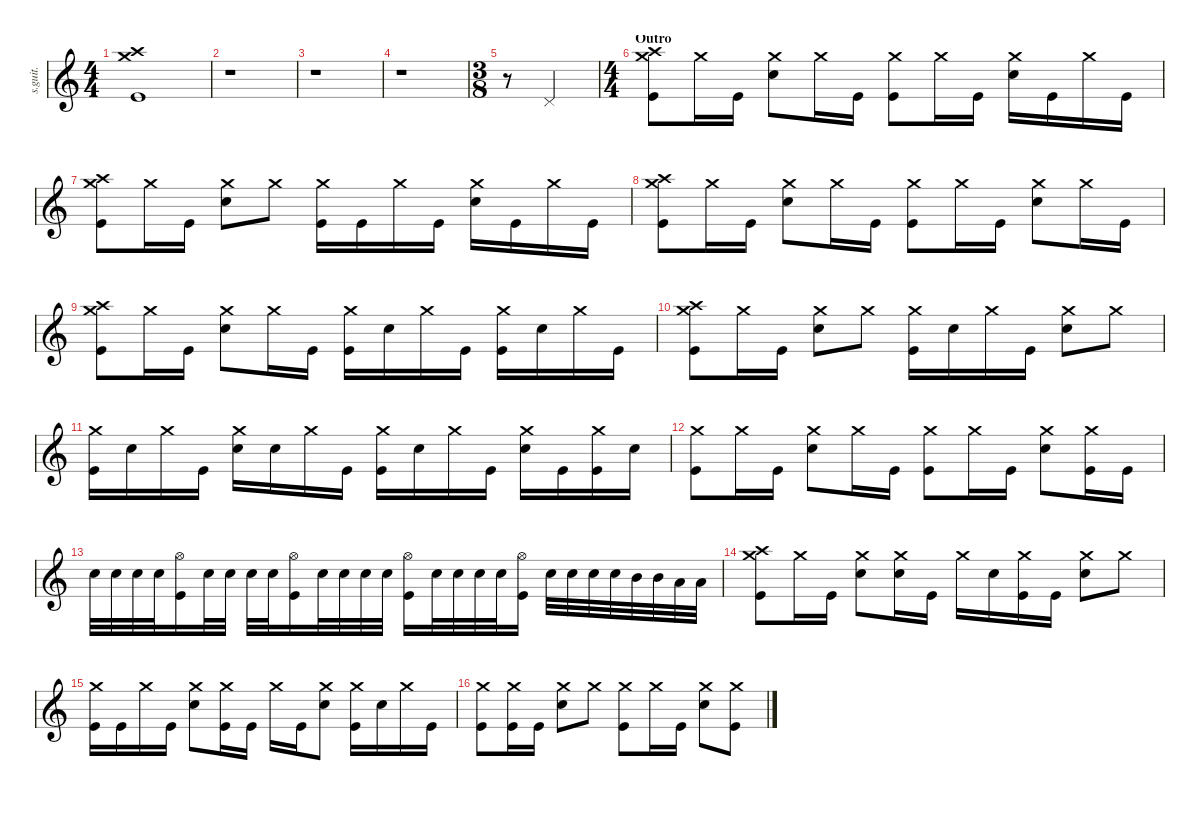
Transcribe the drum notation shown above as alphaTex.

\defaultSystemsLayout 4
\hideDynamics
\bracketExtendMode nobrackets
\track ("Abe Cunningham" "s.guit.") {instrument percussion}
\staff {score}
\articulation defaults
\ts (4 4)
\tempo (93 hide)
\clef g2
\ks c
("Kick (hit)" "Crash medium (hit)" "Crash high (hit)").1{lyrics (0 "") lyrics (1 "") lyrics (2 "") lyrics (3 "") lyrics (4 "") dy fff} |
r.1 |
r.1 |
r.1 |
\ts (3 8)
\beaming (8 2 2 2 2)
r.8 "Pedal Hi-Hat (hit)".4{lyrics (0 "") lyrics (1 "") lyrics (2 "") lyrics (3 "") lyrics (4 "")} |
\ts (4 4)
\beaming (8 2 2 2 2)
\section ("" "Outro")
("Kick (hit)" "Crash high (hit)" "Crash medium (hit)").8{lyrics (0 "") lyrics (1 "") lyrics (2 "") lyrics (3 "") lyrics (4 "")} "Crash medium (hit)".16{lyrics (0 "") lyrics (1 "") lyrics (2 "") lyrics (3 "") lyrics (4 "")} "Kick (hit)".16{lyrics (0 "") lyrics (1 "") lyrics (2 "") lyrics (3 "") lyrics (4 "")} ("Snare (hit) 2" "Crash medium (hit)").8{lyrics (0 "") lyrics (1 "") lyrics (2 "") lyrics (3 "") lyrics (4 "")} "Crash medium (hit)".16{lyrics (0 "") lyrics (1 "") lyrics (2 "") lyrics (3 "") lyrics (4 "")} "Kick (hit)".16{lyrics (0 "") lyrics (1 "") lyrics (2 "") lyrics (3 "") lyrics (4 "")} ("Kick (hit)" "Crash medium (hit)").8{lyrics (0 "") lyrics (1 "") lyrics (2 "") lyrics (3 "") lyrics (4 "")} "Crash medium (hit)".16{lyrics (0 "") lyrics (1 "") lyrics (2 "") lyrics (3 "") lyrics (4 "")} "Kick (hit)".16{lyrics (0 "") lyrics (1 "") lyrics (2 "") lyrics (3 "") lyrics (4 "")} ("Snare (hit) 2" "Crash medium (hit)").16{lyrics (0 "") lyrics (1 "") lyrics (2 "") lyrics (3 "") lyrics (4 "")} "Kick (hit)".16{lyrics (0 "") lyrics (1 "") lyrics (2 "") lyrics (3 "") lyrics (4 "")} "Crash medium (hit)".16{lyrics (0 "") lyrics (1 "") lyrics (2 "") lyrics (3 "") lyrics (4 "")} "Kick (hit)".16{lyrics (0 "") lyrics (1 "") lyrics (2 "") lyrics (3 "") lyrics (4 "")} |
("Kick (hit)" "Crash medium (hit)" "Crash high (hit)").8{lyrics (0 "") lyrics (1 "") lyrics (2 "") lyrics (3 "") lyrics (4 "")} "Crash medium (hit)".16{lyrics (0 "") lyrics (1 "") lyrics (2 "") lyrics (3 "") lyrics (4 "")} "Kick (hit)".16{lyrics (0 "") lyrics (1 "") lyrics (2 "") lyrics (3 "") lyrics (4 "")} ("Snare (hit) 2" "Crash medium (hit)").8{lyrics (0 "") lyrics (1 "") lyrics (2 "") lyrics (3 "") lyrics (4 "")} "Crash medium (hit)".8{lyrics (0 "") lyrics (1 "") lyrics (2 "") lyrics (3 "") lyrics (4 "")} ("Crash medium (hit)" "Kick (hit)").16{lyrics (0 "") lyrics (1 "") lyrics (2 "") lyrics (3 "") lyrics (4 "")} "Kick (hit)".16{lyrics (0 "") lyrics (1 "") lyrics (2 "") lyrics (3 "") lyrics (4 "")} "Crash medium (hit)".16{lyrics (0 "") lyrics (1 "") lyrics (2 "") lyrics (3 "") lyrics (4 "")} "Kick (hit)".16{lyrics (0 "") lyrics (1 "") lyrics (2 "") lyrics (3 "") lyrics (4 "")} ("Snare (hit) 2" "Crash medium (hit)").16{lyrics (0 "") lyrics (1 "") lyrics (2 "") lyrics (3 "") lyrics (4 "")} "Kick (hit)".16{lyrics (0 "") lyrics (1 "") lyrics (2 "") lyrics (3 "") lyrics (4 "")} "Crash medium (hit)".16{lyrics (0 "") lyrics (1 "") lyrics (2 "") lyrics (3 "") lyrics (4 "")} "Kick (hit)".16{lyrics (0 "") lyrics (1 "") lyrics (2 "") lyrics (3 "") lyrics (4 "")} |
("Kick (hit)" "Crash high (hit)" "Crash medium (hit)").8{lyrics (0 "") lyrics (1 "") lyrics (2 "") lyrics (3 "") lyrics (4 "")} "Crash medium (hit)".16{lyrics (0 "") lyrics (1 "") lyrics (2 "") lyrics (3 "") lyrics (4 "")} "Kick (hit)".16{lyrics (0 "") lyrics (1 "") lyrics (2 "") lyrics (3 "") lyrics (4 "")} ("Snare (hit) 2" "Crash medium (hit)").8{lyrics (0 "") lyrics (1 "") lyrics (2 "") lyrics (3 "") lyrics (4 "")} "Crash medium (hit)".16{lyrics (0 "") lyrics (1 "") lyrics (2 "") lyrics (3 "") lyrics (4 "")} "Kick (hit)".16{lyrics (0 "") lyrics (1 "") lyrics (2 "") lyrics (3 "") lyrics (4 "")} ("Kick (hit)" "Crash medium (hit)").8{lyrics (0 "") lyrics (1 "") lyrics (2 "") lyrics (3 "") lyrics (4 "")} "Crash medium (hit)".16{lyrics (0 "") lyrics (1 "") lyrics (2 "") lyrics (3 "") lyrics (4 "")} "Kick (hit)".16{lyrics (0 "") lyrics (1 "") lyrics (2 "") lyrics (3 "") lyrics (4 "")} ("Snare (hit) 2" "Crash medium (hit)").8{lyrics (0 "") lyrics (1 "") lyrics (2 "") lyrics (3 "") lyrics (4 "")} "Crash medium (hit)".16{lyrics (0 "") lyrics (1 "") lyrics (2 "") lyrics (3 "") lyrics (4 "")} "Kick (hit)".16{lyrics (0 "") lyrics (1 "") lyrics (2 "") lyrics (3 "") lyrics (4 "")} |
("Kick (hit)" "Crash medium (hit)" "Crash high (hit)").8{lyrics (0 "") lyrics (1 "") lyrics (2 "") lyrics (3 "") lyrics (4 "")} "Crash medium (hit)".16{lyrics (0 "") lyrics (1 "") lyrics (2 "") lyrics (3 "") lyrics (4 "")} "Kick (hit)".16{lyrics (0 "") lyrics (1 "") lyrics (2 "") lyrics (3 "") lyrics (4 "")} ("Snare (hit) 2" "Crash medium (hit)").8{lyrics (0 "") lyrics (1 "") lyrics (2 "") lyrics (3 "") lyrics (4 "")} "Crash medium (hit)".16{lyrics (0 "") lyrics (1 "") lyrics (2 "") lyrics (3 "") lyrics (4 "")} "Kick (hit)".16{lyrics (0 "") lyrics (1 "") lyrics (2 "") lyrics (3 "") lyrics (4 "")} ("Crash medium (hit)" "Kick (hit)").16{lyrics (0 "") lyrics (1 "") lyrics (2 "") lyrics (3 "") lyrics (4 "")} "Snare (hit) 2".16{lyrics (0 "") lyrics (1 "") lyrics (2 "") lyrics (3 "") lyrics (4 "")} "Crash medium (hit)".16{lyrics (0 "") lyrics (1 "") lyrics (2 "") lyrics (3 "") lyrics (4 "")} "Kick (hit)".16{lyrics (0 "") lyrics (1 "") lyrics (2 "") lyrics (3 "") lyrics (4 "")} ("Crash medium (hit)" "Kick (hit)").16{lyrics (0 "") lyrics (1 "") lyrics (2 "") lyrics (3 "") lyrics (4 "")} "Snare (hit) 2".16{lyrics (0 "") lyrics (1 "") lyrics (2 "") lyrics (3 "") lyrics (4 "")} "Crash medium (hit)".16{lyrics (0 "") lyrics (1 "") lyrics (2 "") lyrics (3 "") lyrics (4 "")} "Kick (hit)".16{lyrics (0 "") lyrics (1 "") lyrics (2 "") lyrics (3 "") lyrics (4 "")} |
("Kick (hit)" "Crash high (hit)" "Crash medium (hit)").8{lyrics (0 "") lyrics (1 "") lyrics (2 "") lyrics (3 "") lyrics (4 "")} "Crash medium (hit)".16{lyrics (0 "") lyrics (1 "") lyrics (2 "") lyrics (3 "") lyrics (4 "")} "Kick (hit)".16{lyrics (0 "") lyrics (1 "") lyrics (2 "") lyrics (3 "") lyrics (4 "")} ("Snare (hit) 2" "Crash medium (hit)").8{lyrics (0 "") lyrics (1 "") lyrics (2 "") lyrics (3 "") lyrics (4 "")} "Crash medium (hit)".8{lyrics (0 "") lyrics (1 "") lyrics (2 "") lyrics (3 "") lyrics (4 "")} ("Crash medium (hit)" "Kick (hit)").16{lyrics (0 "") lyrics (1 "") lyrics (2 "") lyrics (3 "") lyrics (4 "")} "Snare (hit) 2".16{lyrics (0 "") lyrics (1 "") lyrics (2 "") lyrics (3 "") lyrics (4 "")} "Crash medium (hit)".16{lyrics (0 "") lyrics (1 "") lyrics (2 "") lyrics (3 "") lyrics (4 "")} "Kick (hit)".16{lyrics (0 "") lyrics (1 "") lyrics (2 "") lyrics (3 "") lyrics (4 "")} ("Crash medium (hit)" "Snare (hit) 2").8{lyrics (0 "") lyrics (1 "") lyrics (2 "") lyrics (3 "") lyrics (4 "")} "Crash medium (hit)".8{lyrics (0 "") lyrics (1 "") lyrics (2 "") lyrics (3 "") lyrics (4 "")} |
("Kick (hit)" "Crash medium (hit)").16{lyrics (0 "") lyrics (1 "") lyrics (2 "") lyrics (3 "") lyrics (4 "")} "Snare (hit) 2".16{lyrics (0 "") lyrics (1 "") lyrics (2 "") lyrics (3 "") lyrics (4 "")} "Crash medium (hit)".16{lyrics (0 "") lyrics (1 "") lyrics (2 "") lyrics (3 "") lyrics (4 "")} "Kick (hit)".16{lyrics (0 "") lyrics (1 "") lyrics (2 "") lyrics (3 "") lyrics (4 "")} ("Snare (hit) 2" "Crash medium (hit)").16{lyrics (0 "") lyrics (1 "") lyrics (2 "") lyrics (3 "") lyrics (4 "")} "Snare (hit) 2".16{lyrics (0 "") lyrics (1 "") lyrics (2 "") lyrics (3 "") lyrics (4 "")} "Crash medium (hit)".16{lyrics (0 "") lyrics (1 "") lyrics (2 "") lyrics (3 "") lyrics (4 "")} "Kick (hit)".16{lyrics (0 "") lyrics (1 "") lyrics (2 "") lyrics (3 "") lyrics (4 "")} ("Crash medium (hit)" "Kick (hit)").16{lyrics (0 "") lyrics (1 "") lyrics (2 "") lyrics (3 "") lyrics (4 "")} "Snare (hit) 2".16{lyrics (0 "") lyrics (1 "") lyrics (2 "") lyrics (3 "") lyrics (4 "")} "Crash medium (hit)".16{lyrics (0 "") lyrics (1 "") lyrics (2 "") lyrics (3 "") lyrics (4 "")} "Kick (hit)".16{lyrics (0 "") lyrics (1 "") lyrics (2 "") lyrics (3 "") lyrics (4 "")} ("Crash medium (hit)" "Snare (hit) 2").16{lyrics (0 "") lyrics (1 "") lyrics (2 "") lyrics (3 "") lyrics (4 "")} "Kick (hit)".16{lyrics (0 "") lyrics (1 "") lyrics (2 "") lyrics (3 "") lyrics (4 "")} ("Crash medium (hit)" "Kick (hit)").16{lyrics (0 "") lyrics (1 "") lyrics (2 "") lyrics (3 "") lyrics (4 "")} "Snare (hit) 2".16{lyrics (0 "") lyrics (1 "") lyrics (2 "") lyrics (3 "") lyrics (4 "")} |
("Kick (hit)" "Crash medium (hit)").8{lyrics (0 "") lyrics (1 "") lyrics (2 "") lyrics (3 "") lyrics (4 "")} "Crash medium (hit)".16{lyrics (0 "") lyrics (1 "") lyrics (2 "") lyrics (3 "") lyrics (4 "")} "Kick (hit)".16{lyrics (0 "") lyrics (1 "") lyrics (2 "") lyrics (3 "") lyrics (4 "")} ("Snare (hit) 2" "Crash medium (hit)").8{lyrics (0 "") lyrics (1 "") lyrics (2 "") lyrics (3 "") lyrics (4 "")} "Crash medium (hit)".16{lyrics (0 "") lyrics (1 "") lyrics (2 "") lyrics (3 "") lyrics (4 "")} "Kick (hit)".16{lyrics (0 "") lyrics (1 "") lyrics (2 "") lyrics (3 "") lyrics (4 "")} ("Kick (hit)" "Crash medium (hit)").8{lyrics (0 "") lyrics (1 "") lyrics (2 "") lyrics (3 "") lyrics (4 "")} "Crash medium (hit)".16{lyrics (0 "") lyrics (1 "") lyrics (2 "") lyrics (3 "") lyrics (4 "")} "Kick (hit)".16{lyrics (0 "") lyrics (1 "") lyrics (2 "") lyrics (3 "") lyrics (4 "")} ("Snare (hit) 2" "Crash medium (hit)").8{lyrics (0 "") lyrics (1 "") lyrics (2 "") lyrics (3 "") lyrics (4 "")} ("Crash medium (hit)" "Kick (hit)").16{lyrics (0 "") lyrics (1 "") lyrics (2 "") lyrics (3 "") lyrics (4 "")} "Kick (hit)".16{lyrics (0 "") lyrics (1 "") lyrics (2 "") lyrics (3 "") lyrics (4 "")} |
"Snare (hit) 2".32{lyrics (0 "") lyrics (1 "") lyrics (2 "") lyrics (3 "") lyrics (4 "")} "Snare (hit) 2".32{lyrics (0 "") lyrics (1 "") lyrics (2 "") lyrics (3 "") lyrics (4 "")} "Snare (hit) 2".32{lyrics (0 "") lyrics (1 "") lyrics (2 "") lyrics (3 "") lyrics (4 "")} "Snare (hit) 2".32{lyrics (0 "") lyrics (1 "") lyrics (2 "") lyrics (3 "") lyrics (4 "")} ("Kick (hit)" "Hi-Hat (open)").16{lyrics (0 "") lyrics (1 "") lyrics (2 "") lyrics (3 "") lyrics (4 "")} "Snare (hit) 2".32{lyrics (0 "") lyrics (1 "") lyrics (2 "") lyrics (3 "") lyrics (4 "")} "Snare (hit) 2".32{lyrics (0 "") lyrics (1 "") lyrics (2 "") lyrics (3 "") lyrics (4 "")} "Snare (hit) 2".32{lyrics (0 "") lyrics (1 "") lyrics (2 "") lyrics (3 "") lyrics (4 "")} "Snare (hit) 2".32{lyrics (0 "") lyrics (1 "") lyrics (2 "") lyrics (3 "") lyrics (4 "")} ("Kick (hit)" "Hi-Hat (open)").16{lyrics (0 "") lyrics (1 "") lyrics (2 "") lyrics (3 "") lyrics (4 "")} "Snare (hit) 2".32{lyrics (0 "") lyrics (1 "") lyrics (2 "") lyrics (3 "") lyrics (4 "")} "Snare (hit) 2".32{lyrics (0 "") lyrics (1 "") lyrics (2 "") lyrics (3 "") lyrics (4 "")} "Snare (hit) 2".32{lyrics (0 "") lyrics (1 "") lyrics (2 "") lyrics (3 "") lyrics (4 "")} "Snare (hit) 2".32{lyrics (0 "") lyrics (1 "") lyrics (2 "") lyrics (3 "") lyrics (4 "")} ("Kick (hit)" "Hi-Hat (open)").16{lyrics (0 "") lyrics (1 "") lyrics (2 "") lyrics (3 "") lyrics (4 "")} "Snare (hit) 2".32{lyrics (0 "") lyrics (1 "") lyrics (2 "") lyrics (3 "") lyrics (4 "")} "Snare (hit) 2".32{lyrics (0 "") lyrics (1 "") lyrics (2 "") lyrics (3 "") lyrics (4 "")} "Snare (hit) 2".32{lyrics (0 "") lyrics (1 "") lyrics (2 "") lyrics (3 "") lyrics (4 "")} "Snare (hit) 2".32{lyrics (0 "") lyrics (1 "") lyrics (2 "") lyrics (3 "") lyrics (4 "")} ("Kick (hit)" "Hi-Hat (open)").16{lyrics (0 "") lyrics (1 "") lyrics (2 "") lyrics (3 "") lyrics (4 "")} "Snare (hit) 2".32{lyrics (0 "") lyrics (1 "") lyrics (2 "") lyrics (3 "") lyrics (4 "")} "Snare (hit) 2".32{lyrics (0 "") lyrics (1 "") lyrics (2 "") lyrics (3 "") lyrics (4 "")} "Snare (hit) 2".32{lyrics (0 "") lyrics (1 "") lyrics (2 "") lyrics (3 "") lyrics (4 "")} "Snare (hit) 2".32{lyrics (0 "") lyrics (1 "") lyrics (2 "") lyrics (3 "") lyrics (4 "")} "Mid Tom (hit)".32{lyrics (0 "") lyrics (1 "") lyrics (2 "") lyrics (3 "") lyrics (4 "")} "Mid Tom (hit)".32{lyrics (0 "") lyrics (1 "") lyrics (2 "") lyrics (3 "") lyrics (4 "")} "Low Tom (hit)".32{lyrics (0 "") lyrics (1 "") lyrics (2 "") lyrics (3 "") lyrics (4 "")} "Low Tom (hit)".32{lyrics (0 "") lyrics (1 "") lyrics (2 "") lyrics (3 "") lyrics (4 "")} |
("Kick (hit)" "Crash high (hit)" "Crash medium (hit)").8{lyrics (0 "") lyrics (1 "") lyrics (2 "") lyrics (3 "") lyrics (4 "")} "Crash medium (hit)".16{lyrics (0 "") lyrics (1 "") lyrics (2 "") lyrics (3 "") lyrics (4 "")} "Kick (hit)".16{lyrics (0 "") lyrics (1 "") lyrics (2 "") lyrics (3 "") lyrics (4 "")} ("Snare (hit) 2" "Crash medium (hit)").8{lyrics (0 "") lyrics (1 "") lyrics (2 "") lyrics (3 "") lyrics (4 "")} ("Crash medium (hit)" "Snare (hit) 2").16{lyrics (0 "") lyrics (1 "") lyrics (2 "") lyrics (3 "") lyrics (4 "")} "Kick (hit)".16{lyrics (0 "") lyrics (1 "") lyrics (2 "") lyrics (3 "") lyrics (4 "")} "Crash medium (hit)".16{lyrics (0 "") lyrics (1 "") lyrics (2 "") lyrics (3 "") lyrics (4 "")} "Snare (hit) 2".16{lyrics (0 "") lyrics (1 "") lyrics (2 "") lyrics (3 "") lyrics (4 "")} ("Crash medium (hit)" "Kick (hit)").16{lyrics (0 "") lyrics (1 "") lyrics (2 "") lyrics (3 "") lyrics (4 "")} "Kick (hit)".16{lyrics (0 "") lyrics (1 "") lyrics (2 "") lyrics (3 "") lyrics (4 "")} ("Snare (hit) 2" "Crash medium (hit)").8{lyrics (0 "") lyrics (1 "") lyrics (2 "") lyrics (3 "") lyrics (4 "")} "Crash medium (hit)".8{lyrics (0 "") lyrics (1 "") lyrics (2 "") lyrics (3 "") lyrics (4 "")} |
("Crash medium (hit)" "Kick (hit)").16{lyrics (0 "") lyrics (1 "") lyrics (2 "") lyrics (3 "") lyrics (4 "")} "Kick (hit)".16{lyrics (0 "") lyrics (1 "") lyrics (2 "") lyrics (3 "") lyrics (4 "")} "Crash medium (hit)".16{lyrics (0 "") lyrics (1 "") lyrics (2 "") lyrics (3 "") lyrics (4 "")} "Kick (hit)".16{lyrics (0 "") lyrics (1 "") lyrics (2 "") lyrics (3 "") lyrics (4 "")} ("Snare (hit) 2" "Crash medium (hit)").8{lyrics (0 "") lyrics (1 "") lyrics (2 "") lyrics (3 "") lyrics (4 "")} ("Kick (hit)" "Crash medium (hit)").16{lyrics (0 "") lyrics (1 "") lyrics (2 "") lyrics (3 "") lyrics (4 "")} "Kick (hit)".16{lyrics (0 "") lyrics (1 "") lyrics (2 "") lyrics (3 "") lyrics (4 "")} "Crash medium (hit)".16{lyrics (0 "") lyrics (1 "") lyrics (2 "") lyrics (3 "") lyrics (4 "")} "Kick (hit)".16{lyrics (0 "") lyrics (1 "") lyrics (2 "") lyrics (3 "") lyrics (4 "")} ("Snare (hit) 2" "Crash medium (hit)").8{lyrics (0 "") lyrics (1 "") lyrics (2 "") lyrics (3 "") lyrics (4 "")} ("Crash medium (hit)" "Kick (hit)").16{lyrics (0 "") lyrics (1 "") lyrics (2 "") lyrics (3 "") lyrics (4 "")} "Snare (hit) 2".16{lyrics (0 "") lyrics (1 "") lyrics (2 "") lyrics (3 "") lyrics (4 "")} "Crash medium (hit)".16{lyrics (0 "") lyrics (1 "") lyrics (2 "") lyrics (3 "") lyrics (4 "")} "Kick (hit)".16{lyrics (0 "") lyrics (1 "") lyrics (2 "") lyrics (3 "") lyrics (4 "")} |
("Crash medium (hit)" "Kick (hit)").8{lyrics (0 "") lyrics (1 "") lyrics (2 "") lyrics (3 "") lyrics (4 "")} ("Crash medium (hit)" "Kick (hit)").16{lyrics (0 "") lyrics (1 "") lyrics (2 "") lyrics (3 "") lyrics (4 "")} "Kick (hit)".16{lyrics (0 "") lyrics (1 "") lyrics (2 "") lyrics (3 "") lyrics (4 "")} ("Snare (hit) 2" "Crash medium (hit)").8{lyrics (0 "") lyrics (1 "") lyrics (2 "") lyrics (3 "") lyrics (4 "")} "Crash medium (hit)".8{lyrics (0 "") lyrics (1 "") lyrics (2 "") lyrics (3 "") lyrics (4 "")} ("Crash medium (hit)" "Kick (hit)").8{lyrics (0 "") lyrics (1 "") lyrics (2 "") lyrics (3 "") lyrics (4 "")} "Crash medium (hit)".16{lyrics (0 "") lyrics (1 "") lyrics (2 "") lyrics (3 "") lyrics (4 "")} "Kick (hit)".16{lyrics (0 "") lyrics (1 "") lyrics (2 "") lyrics (3 "") lyrics (4 "")} ("Crash medium (hit)" "Snare (hit) 2").8{lyrics (0 "") lyrics (1 "") lyrics (2 "") lyrics (3 "") lyrics (4 "")} ("Crash medium (hit)" "Kick (hit)").8{lyrics (0 "") lyrics (1 "") lyrics (2 "") lyrics (3 "") lyrics (4 "")}
